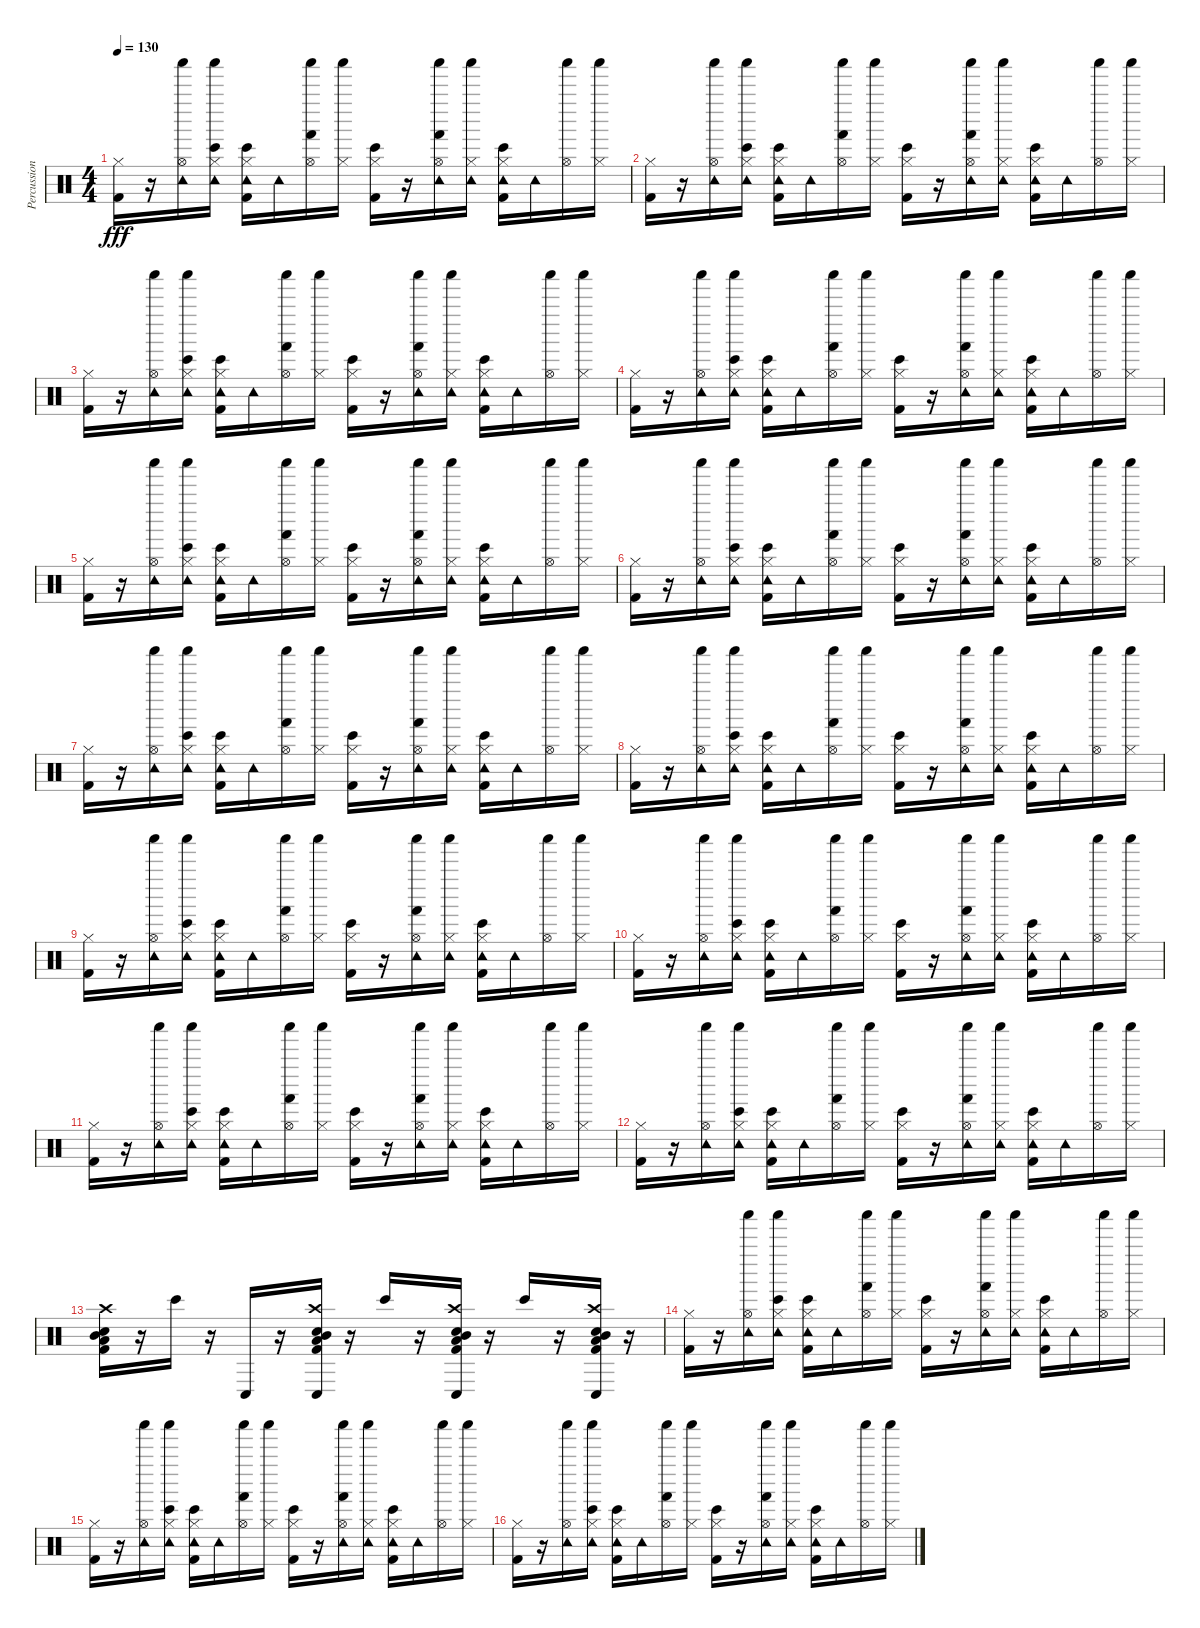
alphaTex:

\track ("Percussions" "Percussion") {instrument percussion}
\staff {score}
\articulation defaults
\ts (4 4)
\tempo 130
\clef neutral
\ks c
("Hi-Hat (closed)" "Kick (hit) 2").16{dy fff} r.16 ("Hi-Hat (open)" "Tambourine (hit)" "Shaker (hit)").16 ("Tambourine (hit)" "Shaker (hit)" "Bongo High (hit)" "Hi-Hat (closed)").16 ("Hi-Hat (closed)" "Kick (hit) 2" "Tambourine (hit)" "Bongo High (hit)").16 "Tambourine (hit)".16 ("Hi-Hat (open)" "Shaker (hit)" "Hand (hit)").16 ("Shaker (hit)" "Hi-Hat (closed)").16 ("Hi-Hat (closed)" "Kick (hit) 2" "Bongo High (hit)").16 r.16 ("Hi-Hat (open)" "Tambourine (hit)" "Shaker (hit)" "Hand (hit)").16 ("Tambourine (hit)" "Shaker (hit)" "Hi-Hat (closed)").16 ("Hi-Hat (closed)" "Kick (hit) 2" "Tambourine (hit)" "Bongo High (hit)").16 "Tambourine (hit)".16 ("Hi-Hat (open)" "Shaker (hit)").16 ("Shaker (hit)" "Hi-Hat (closed)").16 |
("Hi-Hat (closed)" "Kick (hit) 2").16 r.16 ("Hi-Hat (open)" "Tambourine (hit)" "Shaker (hit)").16 ("Tambourine (hit)" "Shaker (hit)" "Bongo High (hit)" "Hi-Hat (closed)").16 ("Hi-Hat (closed)" "Kick (hit) 2" "Tambourine (hit)" "Bongo High (hit)").16 "Tambourine (hit)".16 ("Hi-Hat (open)" "Shaker (hit)" "Hand (hit)").16 ("Shaker (hit)" "Hi-Hat (closed)").16 ("Hi-Hat (closed)" "Kick (hit) 2" "Bongo High (hit)").16 r.16 ("Hi-Hat (open)" "Tambourine (hit)" "Shaker (hit)" "Hand (hit)").16 ("Tambourine (hit)" "Shaker (hit)" "Hi-Hat (closed)").16 ("Hi-Hat (closed)" "Kick (hit) 2" "Tambourine (hit)" "Bongo High (hit)").16 "Tambourine (hit)".16 ("Hi-Hat (open)" "Shaker (hit)").16 ("Shaker (hit)" "Hi-Hat (closed)").16 |
("Hi-Hat (closed)" "Kick (hit) 2").16 r.16 ("Hi-Hat (open)" "Tambourine (hit)" "Shaker (hit)").16 ("Tambourine (hit)" "Shaker (hit)" "Bongo High (hit)" "Hi-Hat (closed)").16 ("Hi-Hat (closed)" "Kick (hit) 2" "Tambourine (hit)" "Bongo High (hit)").16 "Tambourine (hit)".16 ("Hi-Hat (open)" "Shaker (hit)" "Hand (hit)").16 ("Shaker (hit)" "Hi-Hat (closed)").16 ("Hi-Hat (closed)" "Kick (hit) 2" "Bongo High (hit)").16 r.16 ("Hi-Hat (open)" "Tambourine (hit)" "Shaker (hit)" "Hand (hit)").16 ("Tambourine (hit)" "Shaker (hit)" "Hi-Hat (closed)").16 ("Hi-Hat (closed)" "Kick (hit) 2" "Tambourine (hit)" "Bongo High (hit)").16 "Tambourine (hit)".16 ("Hi-Hat (open)" "Shaker (hit)").16 ("Shaker (hit)" "Hi-Hat (closed)").16 |
("Hi-Hat (closed)" "Kick (hit) 2").16 r.16 ("Hi-Hat (open)" "Tambourine (hit)" "Shaker (hit)").16 ("Tambourine (hit)" "Shaker (hit)" "Bongo High (hit)" "Hi-Hat (closed)").16 ("Hi-Hat (closed)" "Kick (hit) 2" "Tambourine (hit)" "Bongo High (hit)").16 "Tambourine (hit)".16 ("Hi-Hat (open)" "Shaker (hit)" "Hand (hit)").16 ("Shaker (hit)" "Hi-Hat (closed)").16 ("Hi-Hat (closed)" "Kick (hit) 2" "Bongo High (hit)").16 r.16 ("Hi-Hat (open)" "Tambourine (hit)" "Shaker (hit)" "Hand (hit)").16 ("Tambourine (hit)" "Shaker (hit)" "Hi-Hat (closed)").16 ("Hi-Hat (closed)" "Kick (hit) 2" "Tambourine (hit)" "Bongo High (hit)").16 "Tambourine (hit)".16 ("Hi-Hat (open)" "Shaker (hit)").16 ("Shaker (hit)" "Hi-Hat (closed)").16 |
("Hi-Hat (closed)" "Kick (hit) 2").16 r.16 ("Hi-Hat (open)" "Tambourine (hit)" "Shaker (hit)").16 ("Tambourine (hit)" "Shaker (hit)" "Bongo High (hit)" "Hi-Hat (closed)").16 ("Hi-Hat (closed)" "Kick (hit) 2" "Tambourine (hit)" "Bongo High (hit)").16 "Tambourine (hit)".16 ("Hi-Hat (open)" "Shaker (hit)" "Hand (hit)").16 ("Shaker (hit)" "Hi-Hat (closed)").16 ("Hi-Hat (closed)" "Kick (hit) 2" "Bongo High (hit)").16 r.16 ("Hi-Hat (open)" "Tambourine (hit)" "Shaker (hit)" "Hand (hit)").16 ("Tambourine (hit)" "Shaker (hit)" "Hi-Hat (closed)").16 ("Hi-Hat (closed)" "Kick (hit) 2" "Tambourine (hit)" "Bongo High (hit)").16 "Tambourine (hit)".16 ("Hi-Hat (open)" "Shaker (hit)").16 ("Shaker (hit)" "Hi-Hat (closed)").16 |
("Hi-Hat (closed)" "Kick (hit) 2").16 r.16 ("Hi-Hat (open)" "Tambourine (hit)" "Shaker (hit)").16 ("Tambourine (hit)" "Shaker (hit)" "Bongo High (hit)" "Hi-Hat (closed)").16 ("Hi-Hat (closed)" "Kick (hit) 2" "Tambourine (hit)" "Bongo High (hit)").16 "Tambourine (hit)".16 ("Hi-Hat (open)" "Shaker (hit)" "Hand (hit)").16 ("Shaker (hit)" "Hi-Hat (closed)").16 ("Hi-Hat (closed)" "Kick (hit) 2" "Bongo High (hit)").16 r.16 ("Hi-Hat (open)" "Tambourine (hit)" "Shaker (hit)" "Hand (hit)").16 ("Tambourine (hit)" "Shaker (hit)" "Hi-Hat (closed)").16 ("Hi-Hat (closed)" "Kick (hit) 2" "Tambourine (hit)" "Bongo High (hit)").16 "Tambourine (hit)".16 ("Hi-Hat (open)" "Shaker (hit)").16 ("Shaker (hit)" "Hi-Hat (closed)").16 |
("Hi-Hat (closed)" "Kick (hit) 2").16 r.16 ("Hi-Hat (open)" "Tambourine (hit)" "Shaker (hit)").16 ("Tambourine (hit)" "Shaker (hit)" "Bongo High (hit)" "Hi-Hat (closed)").16 ("Hi-Hat (closed)" "Kick (hit) 2" "Tambourine (hit)" "Bongo High (hit)").16 "Tambourine (hit)".16 ("Hi-Hat (open)" "Shaker (hit)" "Hand (hit)").16 ("Shaker (hit)" "Hi-Hat (closed)").16 ("Hi-Hat (closed)" "Kick (hit) 2" "Bongo High (hit)").16 r.16 ("Hi-Hat (open)" "Tambourine (hit)" "Shaker (hit)" "Hand (hit)").16 ("Tambourine (hit)" "Shaker (hit)" "Hi-Hat (closed)").16 ("Hi-Hat (closed)" "Kick (hit) 2" "Tambourine (hit)" "Bongo High (hit)").16 "Tambourine (hit)".16 ("Hi-Hat (open)" "Shaker (hit)").16 ("Shaker (hit)" "Hi-Hat (closed)").16 |
("Hi-Hat (closed)" "Kick (hit) 2").16 r.16 ("Hi-Hat (open)" "Tambourine (hit)" "Shaker (hit)").16 ("Tambourine (hit)" "Shaker (hit)" "Bongo High (hit)" "Hi-Hat (closed)").16 ("Hi-Hat (closed)" "Kick (hit) 2" "Tambourine (hit)" "Bongo High (hit)").16 "Tambourine (hit)".16 ("Hi-Hat (open)" "Shaker (hit)" "Hand (hit)").16 ("Shaker (hit)" "Hi-Hat (closed)").16 ("Hi-Hat (closed)" "Kick (hit) 2" "Bongo High (hit)").16 r.16 ("Hi-Hat (open)" "Tambourine (hit)" "Shaker (hit)" "Hand (hit)").16 ("Tambourine (hit)" "Shaker (hit)" "Hi-Hat (closed)").16 ("Hi-Hat (closed)" "Kick (hit) 2" "Tambourine (hit)" "Bongo High (hit)").16 "Tambourine (hit)".16 ("Hi-Hat (open)" "Shaker (hit)").16 ("Shaker (hit)" "Hi-Hat (closed)").16 |
("Hi-Hat (closed)" "Kick (hit) 2").16 r.16 ("Hi-Hat (open)" "Tambourine (hit)" "Shaker (hit)").16 ("Tambourine (hit)" "Shaker (hit)" "Bongo High (hit)" "Hi-Hat (closed)").16 ("Hi-Hat (closed)" "Kick (hit) 2" "Tambourine (hit)" "Bongo High (hit)").16 "Tambourine (hit)".16 ("Hi-Hat (open)" "Shaker (hit)" "Hand (hit)").16 ("Shaker (hit)" "Hi-Hat (closed)").16 ("Hi-Hat (closed)" "Kick (hit) 2" "Bongo High (hit)").16 r.16 ("Hi-Hat (open)" "Tambourine (hit)" "Shaker (hit)" "Hand (hit)").16 ("Tambourine (hit)" "Shaker (hit)" "Hi-Hat (closed)").16 ("Hi-Hat (closed)" "Kick (hit) 2" "Tambourine (hit)" "Bongo High (hit)").16 "Tambourine (hit)".16 ("Hi-Hat (open)" "Shaker (hit)").16 ("Shaker (hit)" "Hi-Hat (closed)").16 |
("Hi-Hat (closed)" "Kick (hit) 2").16 r.16 ("Hi-Hat (open)" "Tambourine (hit)" "Shaker (hit)").16 ("Tambourine (hit)" "Shaker (hit)" "Bongo High (hit)" "Hi-Hat (closed)").16 ("Hi-Hat (closed)" "Kick (hit) 2" "Tambourine (hit)" "Bongo High (hit)").16 "Tambourine (hit)".16 ("Hi-Hat (open)" "Shaker (hit)" "Hand (hit)").16 ("Shaker (hit)" "Hi-Hat (closed)").16 ("Hi-Hat (closed)" "Kick (hit) 2" "Bongo High (hit)").16 r.16 ("Hi-Hat (open)" "Tambourine (hit)" "Shaker (hit)" "Hand (hit)").16 ("Tambourine (hit)" "Shaker (hit)" "Hi-Hat (closed)").16 ("Hi-Hat (closed)" "Kick (hit) 2" "Tambourine (hit)" "Bongo High (hit)").16 "Tambourine (hit)".16 ("Hi-Hat (open)" "Shaker (hit)").16 ("Shaker (hit)" "Hi-Hat (closed)").16 |
("Hi-Hat (closed)" "Kick (hit) 2").16 r.16 ("Hi-Hat (open)" "Tambourine (hit)" "Shaker (hit)").16 ("Tambourine (hit)" "Shaker (hit)" "Bongo High (hit)" "Hi-Hat (closed)").16 ("Hi-Hat (closed)" "Kick (hit) 2" "Tambourine (hit)" "Bongo High (hit)").16 "Tambourine (hit)".16 ("Hi-Hat (open)" "Shaker (hit)" "Hand (hit)").16 ("Shaker (hit)" "Hi-Hat (closed)").16 ("Hi-Hat (closed)" "Kick (hit) 2" "Bongo High (hit)").16 r.16 ("Hi-Hat (open)" "Tambourine (hit)" "Shaker (hit)" "Hand (hit)").16 ("Tambourine (hit)" "Shaker (hit)" "Hi-Hat (closed)").16 ("Hi-Hat (closed)" "Kick (hit) 2" "Tambourine (hit)" "Bongo High (hit)").16 "Tambourine (hit)".16 ("Hi-Hat (open)" "Shaker (hit)").16 ("Shaker (hit)" "Hi-Hat (closed)").16 |
("Hi-Hat (closed)" "Kick (hit) 2").16 r.16 ("Hi-Hat (open)" "Tambourine (hit)" "Shaker (hit)").16 ("Tambourine (hit)" "Shaker (hit)" "Bongo High (hit)" "Hi-Hat (closed)").16 ("Hi-Hat (closed)" "Kick (hit) 2" "Tambourine (hit)" "Bongo High (hit)").16 "Tambourine (hit)".16 ("Hi-Hat (open)" "Shaker (hit)" "Hand (hit)").16 ("Shaker (hit)" "Hi-Hat (closed)").16 ("Hi-Hat (closed)" "Kick (hit) 2" "Bongo High (hit)").16 r.16 ("Hi-Hat (open)" "Tambourine (hit)" "Shaker (hit)" "Hand (hit)").16 ("Tambourine (hit)" "Shaker (hit)" "Hi-Hat (closed)").16 ("Hi-Hat (closed)" "Kick (hit) 2" "Tambourine (hit)" "Bongo High (hit)").16 "Tambourine (hit)".16 ("Hi-Hat (open)" "Shaker (hit)").16 ("Shaker (hit)" "Hi-Hat (closed)").16 |
("Snare (hit) 2" "Crash high (hit)" "Mid Tom (hit)" "Low Tom (hit)" "Kick (hit) 2").16 r.16 "Bongo High (hit)".16 r.16 "Conga low (hit)".16 r.16 ("Snare (hit) 2" "Crash high (hit)" "Conga low (hit)" "Mid Tom (hit)" "Low Tom (hit)" "Kick (hit) 2").16 r.16 "Bongo High (hit)".16 r.16 ("Snare (hit) 2" "Crash high (hit)" "Conga low (hit)" "Mid Tom (hit)" "Low Tom (hit)" "Kick (hit) 2").16 r.16 "Bongo High (hit)".16 r.16 ("Snare (hit) 2" "Crash high (hit)" "Conga low (hit)" "Mid Tom (hit)" "Kick (hit) 2" "Low Tom (hit)").16 r.16 |
("Hi-Hat (closed)" "Kick (hit) 2").16 r.16 ("Hi-Hat (open)" "Tambourine (hit)" "Shaker (hit)").16 ("Tambourine (hit)" "Shaker (hit)" "Bongo High (hit)" "Hi-Hat (closed)").16 ("Hi-Hat (closed)" "Kick (hit) 2" "Tambourine (hit)" "Bongo High (hit)").16 "Tambourine (hit)".16 ("Hi-Hat (open)" "Shaker (hit)" "Hand (hit)").16 ("Shaker (hit)" "Hi-Hat (closed)").16 ("Hi-Hat (closed)" "Kick (hit) 2" "Bongo High (hit)").16 r.16 ("Hi-Hat (open)" "Tambourine (hit)" "Shaker (hit)" "Hand (hit)").16 ("Tambourine (hit)" "Shaker (hit)" "Hi-Hat (closed)").16 ("Hi-Hat (closed)" "Kick (hit) 2" "Tambourine (hit)" "Bongo High (hit)").16 "Tambourine (hit)".16 ("Hi-Hat (open)" "Shaker (hit)").16 ("Shaker (hit)" "Hi-Hat (closed)").16 |
("Hi-Hat (closed)" "Kick (hit) 2").16 r.16 ("Hi-Hat (open)" "Tambourine (hit)" "Shaker (hit)").16 ("Tambourine (hit)" "Shaker (hit)" "Bongo High (hit)" "Hi-Hat (closed)").16 ("Hi-Hat (closed)" "Kick (hit) 2" "Tambourine (hit)" "Bongo High (hit)").16 "Tambourine (hit)".16 ("Hi-Hat (open)" "Shaker (hit)" "Hand (hit)").16 ("Shaker (hit)" "Hi-Hat (closed)").16 ("Hi-Hat (closed)" "Kick (hit) 2" "Bongo High (hit)").16 r.16 ("Hi-Hat (open)" "Tambourine (hit)" "Shaker (hit)" "Hand (hit)").16 ("Tambourine (hit)" "Shaker (hit)" "Hi-Hat (closed)").16 ("Hi-Hat (closed)" "Kick (hit) 2" "Tambourine (hit)" "Bongo High (hit)").16 "Tambourine (hit)".16 ("Hi-Hat (open)" "Shaker (hit)").16 ("Shaker (hit)" "Hi-Hat (closed)").16 |
("Hi-Hat (closed)" "Kick (hit) 2").16 r.16 ("Hi-Hat (open)" "Tambourine (hit)" "Shaker (hit)").16 ("Tambourine (hit)" "Shaker (hit)" "Bongo High (hit)" "Hi-Hat (closed)").16 ("Hi-Hat (closed)" "Kick (hit) 2" "Tambourine (hit)" "Bongo High (hit)").16 "Tambourine (hit)".16 ("Hi-Hat (open)" "Shaker (hit)" "Hand (hit)").16 ("Shaker (hit)" "Hi-Hat (closed)").16 ("Hi-Hat (closed)" "Kick (hit) 2" "Bongo High (hit)").16 r.16 ("Hi-Hat (open)" "Tambourine (hit)" "Shaker (hit)" "Hand (hit)").16 ("Tambourine (hit)" "Shaker (hit)" "Hi-Hat (closed)").16 ("Hi-Hat (closed)" "Kick (hit) 2" "Tambourine (hit)" "Bongo High (hit)").16 "Tambourine (hit)".16 ("Hi-Hat (open)" "Shaker (hit)").16 ("Shaker (hit)" "Hi-Hat (closed)").16
